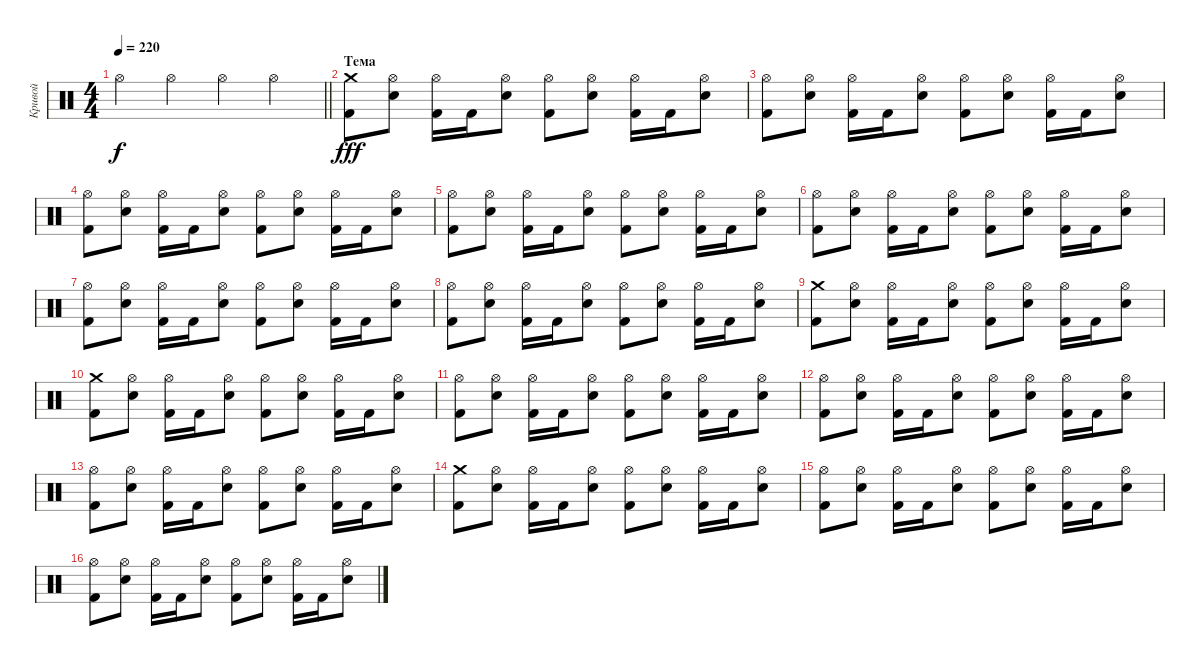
\track ("Кривой" "Кривой") {instrument percussion}
\staff {score}
\articulation defaults
\ts (4 4)
\tempo 220
\clef neutral
\barLineRight lightlight
\ks c "Hi-Hat (open)".4{dy f} "Hi-Hat (open)".4 "Hi-Hat (open)".4 "Hi-Hat (open)".4
|
\section ("" "Тема")
("Crash medium (hit)" "Kick (hit) 2").8{dy fff} ("Hi-Hat (open)" "Electric Snare (hit)").8 ("Hi-Hat (open)" "Kick (hit) 2").16 "Kick (hit) 2".16 ("Hi-Hat (open)" "Electric Snare (hit)").8 ("Hi-Hat (open)" "Kick (hit) 2").8 ("Hi-Hat (open)" "Electric Snare (hit)").8 ("Hi-Hat (open)" "Kick (hit) 2").16 "Kick (hit) 2".16 ("Hi-Hat (open)" "Electric Snare (hit)").8 |
("Hi-Hat (open)" "Kick (hit) 2").8 ("Hi-Hat (open)" "Electric Snare (hit)").8 ("Hi-Hat (open)" "Kick (hit) 2").16 "Kick (hit) 2".16 ("Hi-Hat (open)" "Electric Snare (hit)").8 ("Hi-Hat (open)" "Kick (hit) 2").8 ("Hi-Hat (open)" "Electric Snare (hit)").8 ("Hi-Hat (open)" "Kick (hit) 2").16 "Kick (hit) 2".16 ("Hi-Hat (open)" "Electric Snare (hit)").8 |
("Hi-Hat (open)" "Kick (hit) 2").8 ("Hi-Hat (open)" "Electric Snare (hit)").8 ("Hi-Hat (open)" "Kick (hit) 2").16 "Kick (hit) 2".16 ("Hi-Hat (open)" "Electric Snare (hit)").8 ("Hi-Hat (open)" "Kick (hit) 2").8 ("Hi-Hat (open)" "Electric Snare (hit)").8 ("Hi-Hat (open)" "Kick (hit) 2").16 "Kick (hit) 2".16 ("Hi-Hat (open)" "Electric Snare (hit)").8 |
("Hi-Hat (open)" "Kick (hit) 2").8 ("Hi-Hat (open)" "Electric Snare (hit)").8 ("Hi-Hat (open)" "Kick (hit) 2").16 "Kick (hit) 2".16 ("Hi-Hat (open)" "Electric Snare (hit)").8 ("Hi-Hat (open)" "Kick (hit) 2").8 ("Hi-Hat (open)" "Electric Snare (hit)").8 ("Hi-Hat (open)" "Kick (hit) 2").16 "Kick (hit) 2".16 ("Hi-Hat (open)" "Electric Snare (hit)").8 |
("Hi-Hat (open)" "Kick (hit) 2").8 ("Hi-Hat (open)" "Electric Snare (hit)").8 ("Hi-Hat (open)" "Kick (hit) 2").16 "Kick (hit) 2".16 ("Hi-Hat (open)" "Electric Snare (hit)").8 ("Hi-Hat (open)" "Kick (hit) 2").8 ("Hi-Hat (open)" "Electric Snare (hit)").8 ("Hi-Hat (open)" "Kick (hit) 2").16 "Kick (hit) 2".16 ("Hi-Hat (open)" "Electric Snare (hit)").8 |
("Hi-Hat (open)" "Kick (hit) 2").8 ("Hi-Hat (open)" "Electric Snare (hit)").8 ("Hi-Hat (open)" "Kick (hit) 2").16 "Kick (hit) 2".16 ("Hi-Hat (open)" "Electric Snare (hit)").8 ("Hi-Hat (open)" "Kick (hit) 2").8 ("Hi-Hat (open)" "Electric Snare (hit)").8 ("Hi-Hat (open)" "Kick (hit) 2").16 "Kick (hit) 2".16 ("Hi-Hat (open)" "Electric Snare (hit)").8 |
("Hi-Hat (open)" "Kick (hit) 2").8 ("Hi-Hat (open)" "Electric Snare (hit)").8 ("Hi-Hat (open)" "Kick (hit) 2").16 "Kick (hit) 2".16 ("Hi-Hat (open)" "Electric Snare (hit)").8 ("Hi-Hat (open)" "Kick (hit) 2").8 ("Hi-Hat (open)" "Electric Snare (hit)").8 ("Hi-Hat (open)" "Kick (hit) 2").16 "Kick (hit) 2".16 ("Hi-Hat (open)" "Electric Snare (hit)").8 |
("Crash medium (hit)" "Kick (hit) 2").8 ("Hi-Hat (open)" "Electric Snare (hit)").8 ("Hi-Hat (open)" "Kick (hit) 2").16 "Kick (hit) 2".16 ("Hi-Hat (open)" "Electric Snare (hit)").8 ("Hi-Hat (open)" "Kick (hit) 2").8 ("Hi-Hat (open)" "Electric Snare (hit)").8 ("Hi-Hat (open)" "Kick (hit) 2").16 "Kick (hit) 2".16 ("Hi-Hat (open)" "Electric Snare (hit)").8 |
("Crash medium (hit)" "Kick (hit) 2").8 ("Hi-Hat (open)" "Electric Snare (hit)").8 ("Hi-Hat (open)" "Kick (hit) 2").16 "Kick (hit) 2".16 ("Hi-Hat (open)" "Electric Snare (hit)").8 ("Hi-Hat (open)" "Kick (hit) 2").8 ("Hi-Hat (open)" "Electric Snare (hit)").8 ("Hi-Hat (open)" "Kick (hit) 2").16 "Kick (hit) 2".16 ("Hi-Hat (open)" "Electric Snare (hit)").8 |
("Hi-Hat (open)" "Kick (hit) 2").8 ("Hi-Hat (open)" "Electric Snare (hit)").8 ("Hi-Hat (open)" "Kick (hit) 2").16 "Kick (hit) 2".16 ("Hi-Hat (open)" "Electric Snare (hit)").8 ("Hi-Hat (open)" "Kick (hit) 2").8 ("Hi-Hat (open)" "Electric Snare (hit)").8 ("Hi-Hat (open)" "Kick (hit) 2").16 "Kick (hit) 2".16 ("Hi-Hat (open)" "Electric Snare (hit)").8 |
("Hi-Hat (open)" "Kick (hit) 2").8 ("Hi-Hat (open)" "Electric Snare (hit)").8 ("Hi-Hat (open)" "Kick (hit) 2").16 "Kick (hit) 2".16 ("Hi-Hat (open)" "Electric Snare (hit)").8 ("Hi-Hat (open)" "Kick (hit) 2").8 ("Hi-Hat (open)" "Electric Snare (hit)").8 ("Hi-Hat (open)" "Kick (hit) 2").16 "Kick (hit) 2".16 ("Hi-Hat (open)" "Electric Snare (hit)").8 |
("Hi-Hat (open)" "Kick (hit) 2").8 ("Hi-Hat (open)" "Electric Snare (hit)").8 ("Hi-Hat (open)" "Kick (hit) 2").16 "Kick (hit) 2".16 ("Hi-Hat (open)" "Electric Snare (hit)").8 ("Hi-Hat (open)" "Kick (hit) 2").8 ("Hi-Hat (open)" "Electric Snare (hit)").8 ("Hi-Hat (open)" "Kick (hit) 2").16 "Kick (hit) 2".16 ("Hi-Hat (open)" "Electric Snare (hit)").8 |
("Crash medium (hit)" "Kick (hit) 2").8 ("Hi-Hat (open)" "Electric Snare (hit)").8 ("Hi-Hat (open)" "Kick (hit) 2").16 "Kick (hit) 2".16 ("Hi-Hat (open)" "Electric Snare (hit)").8 ("Hi-Hat (open)" "Kick (hit) 2").8 ("Hi-Hat (open)" "Electric Snare (hit)").8 ("Hi-Hat (open)" "Kick (hit) 2").16 "Kick (hit) 2".16 ("Hi-Hat (open)" "Electric Snare (hit)").8 |
("Hi-Hat (open)" "Kick (hit) 2").8 ("Hi-Hat (open)" "Electric Snare (hit)").8 ("Hi-Hat (open)" "Kick (hit) 2").16 "Kick (hit) 2".16 ("Hi-Hat (open)" "Electric Snare (hit)").8 ("Hi-Hat (open)" "Kick (hit) 2").8 ("Hi-Hat (open)" "Electric Snare (hit)").8 ("Hi-Hat (open)" "Kick (hit) 2").16 "Kick (hit) 2".16 ("Hi-Hat (open)" "Electric Snare (hit)").8 |
("Hi-Hat (open)" "Kick (hit) 2").8 ("Hi-Hat (open)" "Electric Snare (hit)").8 ("Hi-Hat (open)" "Kick (hit) 2").16 "Kick (hit) 2".16 ("Hi-Hat (open)" "Electric Snare (hit)").8 ("Hi-Hat (open)" "Kick (hit) 2").8 ("Hi-Hat (open)" "Electric Snare (hit)").8 ("Hi-Hat (open)" "Kick (hit) 2").16 "Kick (hit) 2".16 ("Hi-Hat (open)" "Electric Snare (hit)").8
